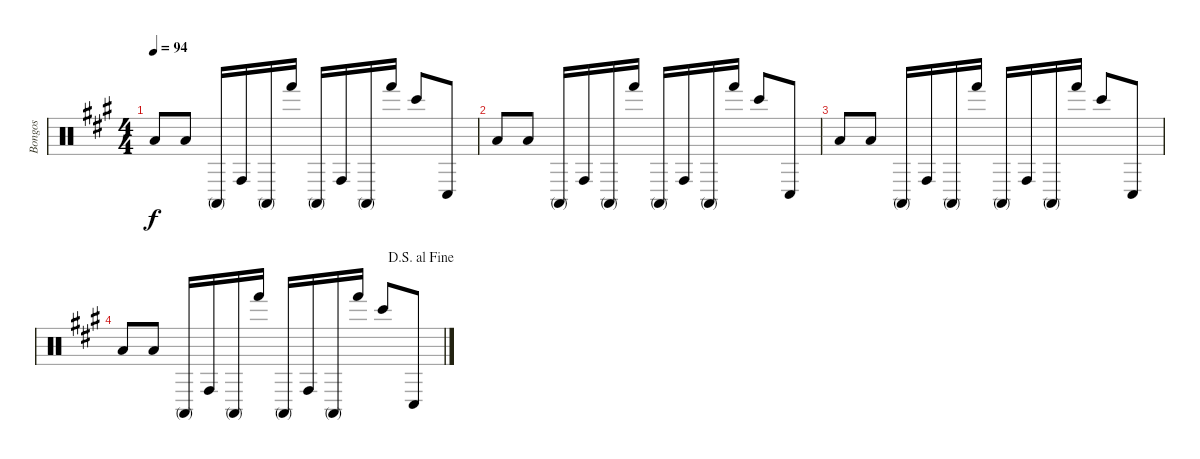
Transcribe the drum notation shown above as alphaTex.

\track ("Bongos" "Bongos") {instrument percussion}
\staff {score}
\articulation defaults
\ts (4 4)
\tempo 94
\clef neutral
\ks a "Low Floor Tom (hit)".8{dy f} "Low Floor Tom (hit)".8 "Conga high (mute)".16 "Conga high (hit)".16 "Conga high (mute)".16 "Hand (hit)".16 "Conga high (mute)".16 "Conga high (hit)".16 "Conga high (mute)".16 "Hand (hit)".16 "Bongo High (hit)".8 "Conga low (hit)".8
|
"Low Floor Tom (hit)".8 "Low Floor Tom (hit)".8 "Conga high (mute)".16 "Conga high (hit)".16 "Conga high (mute)".16 "Hand (hit)".16 "Conga high (mute)".16 "Conga high (hit)".16 "Conga high (mute)".16 "Hand (hit)".16 "Bongo High (hit)".8 "Conga low (hit)".8 |
"Low Floor Tom (hit)".8 "Low Floor Tom (hit)".8 "Conga high (mute)".16 "Conga high (hit)".16 "Conga high (mute)".16 "Hand (hit)".16 "Conga high (mute)".16 "Conga high (hit)".16 "Conga high (mute)".16 "Hand (hit)".16 "Bongo High (hit)".8 "Conga low (hit)".8 |
\jump dalsegnoalfine "Low Floor Tom (hit)".8 "Low Floor Tom (hit)".8 "Conga high (mute)".16 "Conga high (hit)".16 "Conga high (mute)".16 "Hand (hit)".16 "Conga high (mute)".16 "Conga high (hit)".16 "Conga high (mute)".16 "Hand (hit)".16 "Bongo High (hit)".8 "Conga low (hit)".8
